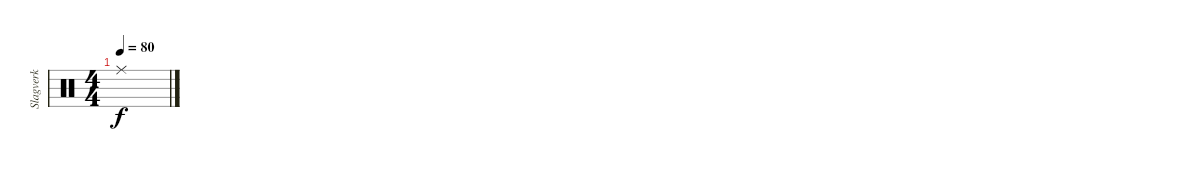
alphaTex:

\track ("Slagverk" "Slagverk") {instrument percussion}
\staff {score}
\articulation defaults
\ts (4 4)
\tempo 80
\clef neutral
\ks c "Ride (middle)".1{dy f}
